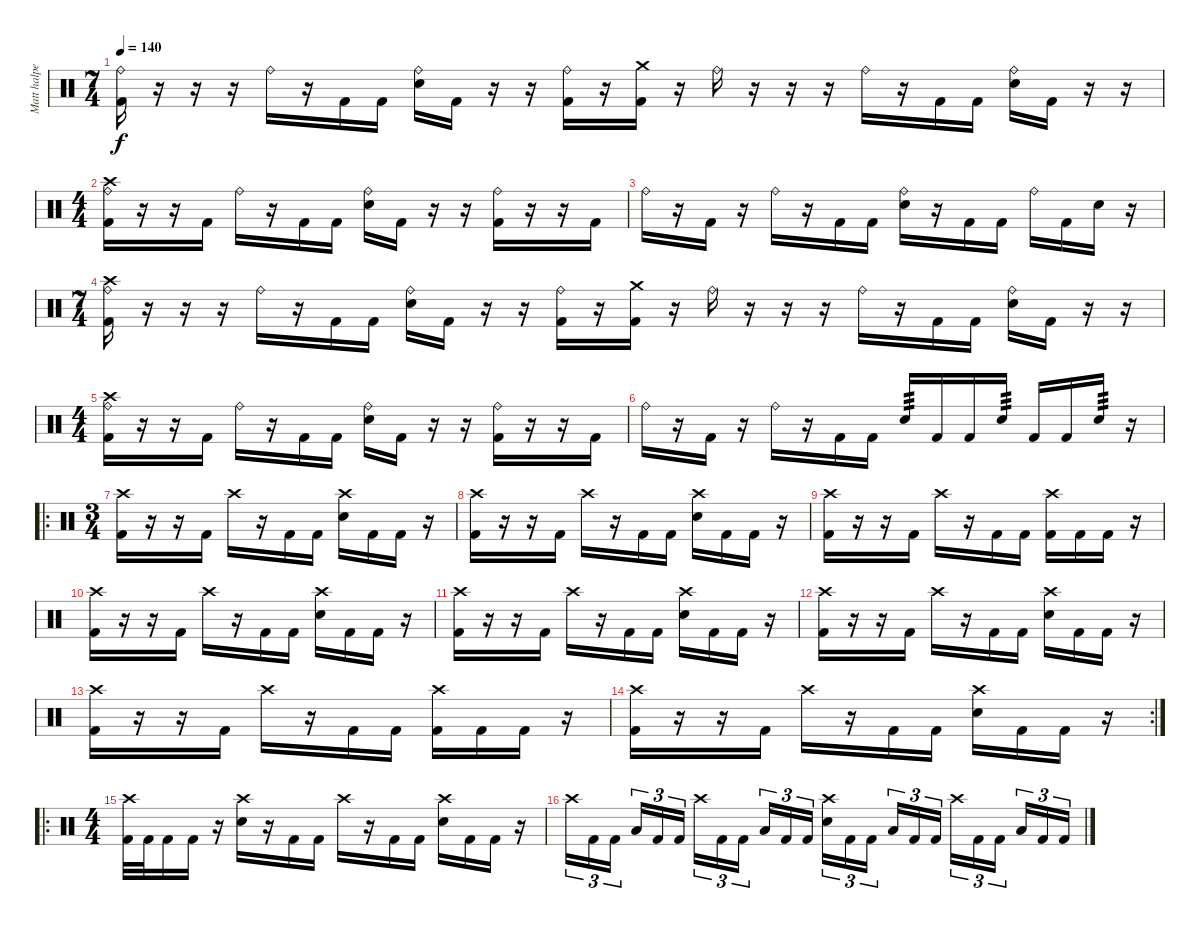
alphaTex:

\track ("Matt halpern" "Matt halpe") {instrument percussion}
\staff {score}
\articulation defaults
\ts (7 4)
\tempo 140
\clef neutral
\ks c
("Ride (bell)" "Kick (hit) 2").16{dy f} r.16 r.16 r.16 "Ride (bell)".16 r.16 "Kick (hit) 2".16 "Kick (hit) 2".16 ("Ride (bell)" "Electric Snare (hit)").16 "Kick (hit) 2".16 r.16 r.16 ("Ride (bell)" "Kick (hit) 2").16 r.16 ("Crash medium (hit)" "Kick (hit) 2").16 r.16 "Ride (bell)".16 r.16 r.16 r.16 "Ride (bell)".16 r.16 "Kick (hit) 2".16 "Kick (hit) 2".16 ("Ride (bell)" "Electric Snare (hit)").16 "Kick (hit) 2".16 r.16 r.16 |
\ts (4 4)
("Crash high (hit)" "Ride (bell)" "Kick (hit) 2").16 r.16 r.16 "Kick (hit) 2".16 "Ride (bell)".16 r.16 "Kick (hit) 2".16 "Kick (hit) 2".16 ("Ride (bell)" "Electric Snare (hit)").16 "Kick (hit) 2".16 r.16 r.16 ("Ride (bell)" "Kick (hit) 2").16 r.16 r.16 "Kick (hit) 2".16 |
"Ride (bell)".16 r.16 "Kick (hit) 2".16 r.16 "Ride (bell)".16 r.16 "Kick (hit) 2".16 "Kick (hit) 2".16 ("Ride (bell)" "Electric Snare (hit)").16 r.16 "Kick (hit) 2".16 "Kick (hit) 2".16 "Ride (bell)".16 "Kick (hit) 2".16 "Electric Snare (hit)".16 r.16 |
\ts (7 4)
("Crash high (hit)" "Ride (bell)" "Kick (hit) 2").16 r.16 r.16 r.16 "Ride (bell)".16 r.16 "Kick (hit) 2".16 "Kick (hit) 2".16 ("Ride (bell)" "Electric Snare (hit)").16 "Kick (hit) 2".16 r.16 r.16 ("Ride (bell)" "Kick (hit) 2").16 r.16 ("Crash medium (hit)" "Kick (hit) 2").16 r.16 "Ride (bell)".16 r.16 r.16 r.16 "Ride (bell)".16 r.16 "Kick (hit) 2".16 "Kick (hit) 2".16 ("Ride (bell)" "Electric Snare (hit)").16 "Kick (hit) 2".16 r.16 r.16 |
\ts (4 4)
("Crash high (hit)" "Ride (bell)" "Kick (hit) 2").16 r.16 r.16 "Kick (hit) 2".16 "Ride (bell)".16 r.16 "Kick (hit) 2".16 "Kick (hit) 2".16 ("Ride (bell)" "Electric Snare (hit)").16 "Kick (hit) 2".16 r.16 r.16 ("Ride (bell)" "Kick (hit) 2").16 r.16 r.16 "Kick (hit) 2".16 |
"Ride (bell)".16 r.16 "Kick (hit) 2".16 r.16 "Ride (bell)".16 r.16 "Kick (hit) 2".16 "Kick (hit) 2".16 "Electric Snare (hit)".16{tp 3} "Kick (hit) 2".16 "Kick (hit) 2".16 "Electric Snare (hit)".16{tp 3} "Kick (hit) 2".16 "Kick (hit) 2".16 "Electric Snare (hit)".16{tp 3} r.16 |
\ro
\ts (3 4)
("Crash high (hit)" "Kick (hit) 2").16 r.16 r.16 "Kick (hit) 2".16 "Crash high (hit)".16 r.16 "Kick (hit) 2".16 "Kick (hit) 2".16 ("Crash high (hit)" "Electric Snare (hit)").16 "Kick (hit) 2".16 "Kick (hit) 2".16 r.16 |
("Crash high (hit)" "Kick (hit) 2").16 r.16 r.16 "Kick (hit) 2".16 "Crash high (hit)".16 r.16 "Kick (hit) 2".16 "Kick (hit) 2".16 ("Crash high (hit)" "Electric Snare (hit)").16 "Kick (hit) 2".16 "Kick (hit) 2".16 r.16 |
("Crash high (hit)" "Kick (hit) 2").16 r.16 r.16 "Kick (hit) 2".16 "Crash high (hit)".16 r.16 "Kick (hit) 2".16 "Kick (hit) 2".16 ("Crash high (hit)" "Kick (hit) 2").16 "Kick (hit) 2".16 "Kick (hit) 2".16 r.16 |
("Crash high (hit)" "Kick (hit) 2").16 r.16 r.16 "Kick (hit) 2".16 "Crash high (hit)".16 r.16 "Kick (hit) 2".16 "Kick (hit) 2".16 ("Crash high (hit)" "Electric Snare (hit)").16 "Kick (hit) 2".16 "Kick (hit) 2".16 r.16 |
("Crash high (hit)" "Kick (hit) 2").16 r.16 r.16 "Kick (hit) 2".16 "Crash high (hit)".16 r.16 "Kick (hit) 2".16 "Kick (hit) 2".16 ("Crash high (hit)" "Electric Snare (hit)").16 "Kick (hit) 2".16 "Kick (hit) 2".16 r.16 |
("Crash high (hit)" "Kick (hit) 2").16 r.16 r.16 "Kick (hit) 2".16 "Crash high (hit)".16 r.16 "Kick (hit) 2".16 "Kick (hit) 2".16 ("Crash high (hit)" "Electric Snare (hit)").16 "Kick (hit) 2".16 "Kick (hit) 2".16 r.16 |
("Crash high (hit)" "Kick (hit) 2").16 r.16 r.16 "Kick (hit) 2".16 "Crash high (hit)".16 r.16 "Kick (hit) 2".16 "Kick (hit) 2".16 ("Crash high (hit)" "Kick (hit) 2").16 "Kick (hit) 2".16 "Kick (hit) 2".16 r.16 |
\rc 2
("Crash high (hit)" "Kick (hit) 2").16 r.16 r.16 "Kick (hit) 2".16 "Crash high (hit)".16 r.16 "Kick (hit) 2".16 "Kick (hit) 2".16 ("Crash high (hit)" "Electric Snare (hit)").16 "Kick (hit) 2".16 "Kick (hit) 2".16 r.16 |
\ro
\ts (4 4)
("Crash high (hit)" "Kick (hit) 2").32 "Kick (hit) 2".32 "Kick (hit) 2".16 "Kick (hit) 2".16 r.16 ("Crash high (hit)" "Electric Snare (hit)").16 r.16 "Kick (hit) 2".16 "Kick (hit) 2".16 "Crash high (hit)".16 r.16 "Kick (hit) 2".16 "Kick (hit) 2".16 ("Crash high (hit)" "Electric Snare (hit)").16 "Kick (hit) 2".16 "Kick (hit) 2".16 r.16 |
"Crash high (hit)".16{tu (3 2)} "Kick (hit) 2".16{tu (3 2)} "Kick (hit) 2".16{tu (3 2)} "Low Floor Tom (hit)".16{tu (3 2)} "Kick (hit) 2".16{tu (3 2)} "Kick (hit) 2".16{tu (3 2)} "Crash high (hit)".16{tu (3 2)} "Kick (hit) 2".16{tu (3 2)} "Kick (hit) 2".16{tu (3 2)} "Low Floor Tom (hit)".16{tu (3 2)} "Kick (hit) 2".16{tu (3 2)} "Kick (hit) 2".16{tu (3 2)} ("Crash high (hit)" "Electric Snare (hit)").16{tu (3 2)} "Kick (hit) 2".16{tu (3 2)} "Kick (hit) 2".16{tu (3 2)} "Low Floor Tom (hit)".16{tu (3 2)} "Kick (hit) 2".16{tu (3 2)} "Kick (hit) 2".16{tu (3 2)} "Crash high (hit)".16{tu (3 2)} "Kick (hit) 2".16{tu (3 2)} "Kick (hit) 2".16{tu (3 2)} "Low Floor Tom (hit)".16{tu (3 2)} "Kick (hit) 2".16{tu (3 2)} "Kick (hit) 2".16{tu (3 2)}
